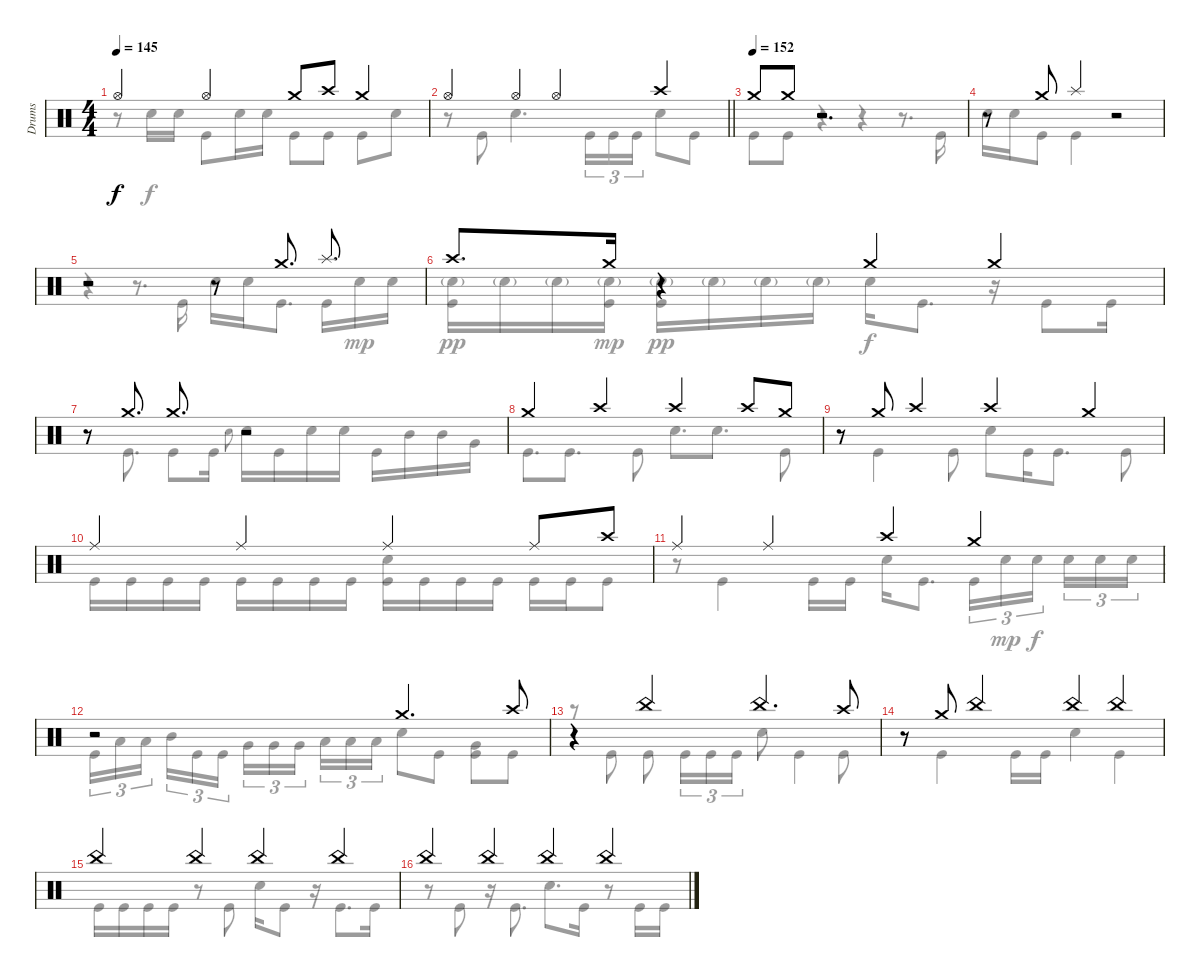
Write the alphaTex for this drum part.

\track ("Drums" "Drums") {instrument percussion}
\staff {score}
\articulation defaults
\voice
\ts (4 4)
\tempo 145
\clef neutral
\ks c "Hi-Hat (open)".4{dy f} "Hi-Hat (open)".4 "Crash medium (hit)".8 "Crash high (hit)".8 "Crash medium (hit)".4
|
\barLineRight lightlight "Hi-Hat (open)".4 "Hi-Hat (open)".4 "Hi-Hat (open)".4 "Crash high (hit)".4
|
\section ("" "")
\tempo (152)
"Crash medium (hit)".8 "Crash medium (hit)".8 r.2{d} |
r.8 "Crash medium (hit)".8 "Splash (hit)".4 r.2 |
r.2 r.8 "Crash medium (hit)".8{d} "Splash (hit)".8{d} |
"Crash high (hit)".8{d} "Crash medium (hit)".16 r.4 "Crash medium (hit)".4 "Crash medium (hit)".4 |
r.8 "Crash medium (hit)".8{d} "Crash medium (hit)".8{d} r.2 |
"Crash medium (hit)".4 "Crash high (hit)".4 "Crash high (hit)".4 "Crash high (hit)".8 "Crash medium (hit)".8 |
r.8 "Crash medium (hit)".8 "Crash high (hit)".4 "Crash high (hit)".4 "Crash medium (hit)".4 |
"Ride (middle)".4 "Ride (middle)".4 "Ride (middle)".4 "Ride (middle)".8 "Crash high (hit)".8 |
"Ride (middle)".4 "Ride (middle)".4 "Crash high (hit)".4 "Crash medium (hit)".4 |
r.2 "Crash medium (hit)".4{d} "Crash high (hit)".8 |
r.4 "China (hit)".4 "China (hit)".4{d} "Crash high (hit)".8 |
r.8 "Crash medium (hit)".8 "China (hit)".4 "China (hit)".4 "China (hit)".4 |
"China (hit)".4 "China (hit)".4 "China (hit)".4 "China (hit)".4 |
"China (hit)".4 "China (hit)".4 "China (hit)".4 "China (hit)".4
\voice
\clef neutral
\ottava regular
\simile none
\ks c
r.8{dy f} "Snare (hit) 2".16 "Snare (hit) 2".16 "Kick (hit)".8 "Snare (hit) 2".16 "Snare (hit) 2".16 "Kick (hit)".8 "Kick (hit)".8 "Kick (hit)".8 "Snare (hit) 2".8 |
\barLineRight lightlight
r.8 "Kick (hit)".8 "Snare (hit) 2".4{d} "Kick (hit)".16{tu (3 2)} "Kick (hit)".16{tu (3 2)} "Kick (hit)".16{tu (3 2)} "Snare (hit) 2".8 "Kick (hit)".8 |
"Kick (hit)".8 "Kick (hit)".8 r.4 r.4 r.8{d} "Kick (hit)".16 |
"Snare (hit) 2".16 "Snare (hit) 2".16 "Kick (hit)".8 "Kick (hit)".4 r.2 |
r.4 r.8{d} "Kick (hit)".16 "Snare (hit) 2".16 "Snare (hit) 2".16 "Kick (hit)".8{d} "Kick (hit)".16 "Snare (hit) 2".16{dy mp} "Snare (hit) 2".16 |
("Snare (hit) 2"{g} "Kick (hit)").16{dy pp} "Snare (hit) 2"{g}.16 "Snare (hit) 2"{g}.16 ("Snare (hit) 2"{g} "Kick (hit)").16{dy mp} ("Snare (hit) 2"{g} "Kick (hit)").16{dy pp} "Snare (hit) 2"{g}.16 "Snare (hit) 2"{g}.16 "Snare (hit) 2"{g}.16 "Snare (hit) 2".16{dy f} "Kick (hit)".8{d} r.16 "Kick (hit)".8 "Kick (hit)".16 |
r.8 "Kick (hit)".8{d} "Kick (hit)".8 "Kick (hit)".16 "Snare (hit) 2".8{gr onbeat} "Snare (hit) 2".16 "Kick (hit)".16 "Snare (hit) 2".16 "Snare (hit) 2".16 "Kick (hit)".16 "Mid Tom (hit)".16 "Mid Tom (hit)".16 "Very Low Tom (hit)".16 |
"Kick (hit)".8{d} "Kick (hit)".8{d} "Kick (hit)".8 "Snare (hit) 2".8{d} "Snare (hit) 2".8{d} "Kick (hit)".8 |
r.8 "Kick (hit)".4 "Kick (hit)".8 "Snare (hit) 2".8 "Kick (hit)".16 "Kick (hit)".8{d} "Kick (hit)".8 |
"Kick (hit)".16 "Kick (hit)".16 "Kick (hit)".16 "Kick (hit)".16 "Kick (hit)".16 "Kick (hit)".16 "Kick (hit)".16 "Kick (hit)".16 ("Snare (hit) 2" "Kick (hit)").16 "Kick (hit)".16 "Kick (hit)".16 "Kick (hit)".16 "Kick (hit)".16 "Kick (hit)".16 "Kick (hit)".8 |
r.8 "Kick (hit)".4 "Kick (hit)".16 "Kick (hit)".16 "Snare (hit) 2".16 "Kick (hit)".8{d} "Kick (hit)".16{tu (3 2)} "Snare (hit) 2".16{tu (3 2) dy mp} "Snare (hit) 2".16{tu (3 2) dy f beam splitsecondary} "Snare (hit) 2".16{tu (3 2)} "Snare (hit) 2".16{tu (3 2)} "Snare (hit) 2".16{tu (3 2)} |
"Kick (hit)".16{tu (3 2)} "Low Tom (hit)".16{tu (3 2)} "Low Tom (hit)".16{tu (3 2) beam splitsecondary} "Mid Tom (hit)".16{tu (3 2)} "Kick (hit)".16{tu (3 2)} "Kick (hit)".16{tu (3 2)} "Very Low Tom (hit)".16{tu (3 2)} "Very Low Tom (hit)".16{tu (3 2)} "Very Low Tom (hit)".16{tu (3 2) beam splitsecondary} "Low Tom (hit)".16{tu (3 2)} "Low Tom (hit)".16{tu (3 2)} "Low Tom (hit)".16{tu (3 2)} "Snare (hit) 2".8 "Kick (hit)".8 ("Very Low Tom (hit)" "Kick (hit)").8 "Kick (hit)".8 |
r.8 "Kick (hit)".8 "Kick (hit)".8 "Kick (hit)".16{tu (3 2)} "Kick (hit)".16{tu (3 2)} "Kick (hit)".16{tu (3 2)} "Snare (hit) 2".8 "Kick (hit)".4 "Kick (hit)".8 |
r.8 "Kick (hit)".4 "Kick (hit)".16 "Kick (hit)".16 "Snare (hit) 2".4 "Kick (hit)".4 |
"Kick (hit)".16 "Kick (hit)".16 "Kick (hit)".16 "Kick (hit)".16 r.8 "Kick (hit)".8 "Snare (hit) 2".16 "Kick (hit)".8 r.16 "Kick (hit)".8{d} "Kick (hit)".16 |
r.8 "Kick (hit)".8 r.16 "Kick (hit)".8{d} "Snare (hit) 2".8{d} "Kick (hit)".16 r.8 "Kick (hit)".16 "Kick (hit)".16
